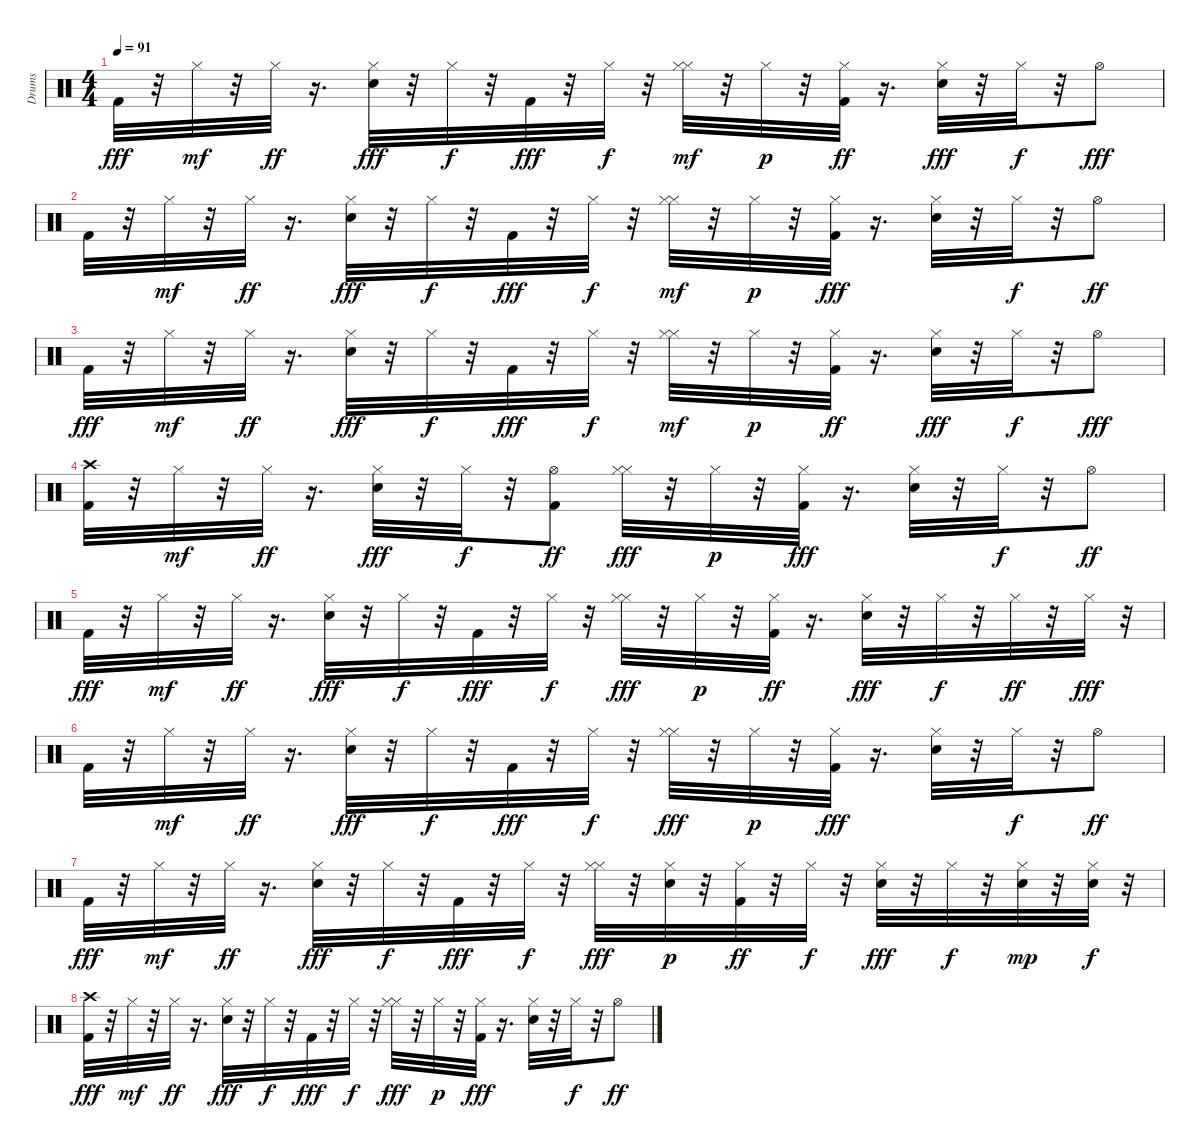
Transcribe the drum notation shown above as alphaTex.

\track ("Drums" "Drums") {instrument percussion}
\staff {score}
\articulation defaults
\ts (4 4)
\tempo 91
\clef neutral
\ks c "Kick (hit) 2".32{dy fff}
r.32 "Hi-Hat (closed)".32{dy mf} r.32 "Hi-Hat (closed)".32{dy ff} r.16{d} ("Snare (hit) 2" "Hi-Hat (closed)").32{dy fff} r.32 "Hi-Hat (closed)".32{dy f} r.32 "Kick (hit) 2".32{dy fff} r.32 "Hi-Hat (closed)".32{dy f} r.32 ("Hi-Hat (closed)" "Hi-Hat (closed)").32{dy mf} r.32 "Hi-Hat (closed)".32{dy p} r.32 ("Kick (hit) 2" "Hi-Hat (closed)").32{dy ff} r.16{d} ("Hi-Hat (closed)" "Snare (hit) 2").32{dy fff} r.32 "Hi-Hat (closed)".32{dy f} r.32 "Hi-Hat (open)".8{dy fff} |
"Kick (hit) 2".32 r.32 "Hi-Hat (closed)".32{dy mf} r.32 "Hi-Hat (closed)".32{dy ff} r.16{d} ("Snare (hit) 2" "Hi-Hat (closed)").32{dy fff} r.32 "Hi-Hat (closed)".32{dy f} r.32 "Kick (hit) 2".32{dy fff} r.32 "Hi-Hat (closed)".32{dy f} r.32 ("Hi-Hat (closed)" "Hi-Hat (closed)").32{dy mf} r.32 "Hi-Hat (closed)".32{dy p} r.32 ("Hi-Hat (closed)" "Kick (hit) 2").32{dy fff} r.16{d} ("Snare (hit) 2" "Hi-Hat (closed)").32 r.32 "Hi-Hat (closed)".32{dy f} r.32 "Hi-Hat (open)".8{dy ff} |
"Kick (hit) 2".32{dy fff} r.32 "Hi-Hat (closed)".32{dy mf} r.32 "Hi-Hat (closed)".32{dy ff} r.16{d} ("Snare (hit) 2" "Hi-Hat (closed)").32{dy fff} r.32 "Hi-Hat (closed)".32{dy f} r.32 "Kick (hit) 2".32{dy fff} r.32 "Hi-Hat (closed)".32{dy f} r.32 ("Hi-Hat (closed)" "Hi-Hat (closed)").32{dy mf} r.32 "Hi-Hat (closed)".32{dy p} r.32 ("Kick (hit) 2" "Hi-Hat (closed)").32{dy ff} r.16{d} ("Hi-Hat (closed)" "Snare (hit) 2").32{dy fff} r.32 "Hi-Hat (closed)".32{dy f} r.32 "Hi-Hat (open)".8{dy fff} |
("Crash high (hit)" "Kick (hit) 2").32 r.32 "Hi-Hat (closed)".32{dy mf} r.32 "Hi-Hat (closed)".32{dy ff} r.16{d} ("Snare (hit) 2" "Hi-Hat (closed)").32{dy fff} r.32 "Hi-Hat (closed)".32{dy f} r.32 ("Kick (hit) 2" "Hi-Hat (open)").8{dy ff} ("Hi-Hat (closed)" "Hi-Hat (closed)").32{dy fff} r.32 "Hi-Hat (closed)".32{dy p} r.32 ("Hi-Hat (closed)" "Kick (hit) 2").32{dy fff} r.16{d} ("Hi-Hat (closed)" "Snare (hit) 2").32 r.32 "Hi-Hat (closed)".32{dy f} r.32 "Hi-Hat (open)".8{dy ff} |
"Kick (hit) 2".32{dy fff} r.32 "Hi-Hat (closed)".32{dy mf} r.32 "Hi-Hat (closed)".32{dy ff} r.16{d} ("Hi-Hat (closed)" "Snare (hit) 2").32{dy fff} r.32 "Hi-Hat (closed)".32{dy f} r.32 "Kick (hit) 2".32{dy fff} r.32 "Hi-Hat (closed)".32{dy f} r.32 ("Hi-Hat (closed)" "Hi-Hat (closed)").32{dy fff} r.32 "Hi-Hat (closed)".32{dy p} r.32 ("Kick (hit) 2" "Hi-Hat (closed)").32{dy ff} r.16{d} ("Hi-Hat (closed)" "Snare (hit) 2").32{dy fff} r.32 "Hi-Hat (closed)".32{dy f} r.32 "Hi-Hat (closed)".32{dy ff} r.32 "Hi-Hat (closed)".32{dy fff} r.32 |
"Kick (hit) 2".32 r.32 "Hi-Hat (closed)".32{dy mf} r.32 "Hi-Hat (closed)".32{dy ff} r.16{d} ("Hi-Hat (closed)" "Snare (hit) 2").32{dy fff} r.32 "Hi-Hat (closed)".32{dy f} r.32 "Kick (hit) 2".32{dy fff} r.32 "Hi-Hat (closed)".32{dy f} r.32 ("Hi-Hat (closed)" "Hi-Hat (closed)").32{dy fff} r.32 "Hi-Hat (closed)".32{dy p} r.32 ("Hi-Hat (closed)" "Kick (hit) 2").32{dy fff} r.16{d} ("Snare (hit) 2" "Hi-Hat (closed)").32 r.32 "Hi-Hat (closed)".32{dy f} r.32 "Hi-Hat (open)".8{dy ff} |
"Kick (hit) 2".32{dy fff} r.32 "Hi-Hat (closed)".32{dy mf} r.32 "Hi-Hat (closed)".32{dy ff} r.16{d} ("Snare (hit) 2" "Hi-Hat (closed)").32{dy fff} r.32 "Hi-Hat (closed)".32{dy f} r.32 "Kick (hit) 2".32{dy fff} r.32 "Hi-Hat (closed)".32{dy f} r.32 ("Hi-Hat (closed)" "Hi-Hat (closed)").32{dy fff} r.32 ("Snare (hit) 2" "Hi-Hat (closed)").32{dy p} r.32 ("Kick (hit) 2" "Hi-Hat (closed)").32{dy ff} r.32 "Hi-Hat (closed)".32{dy f} r.32 ("Hi-Hat (closed)" "Snare (hit) 2").32{dy fff} r.32 "Hi-Hat (closed)".32{dy f} r.32 ("Snare (hit) 2" "Hi-Hat (closed)").32{dy mp} r.32 ("Snare (hit) 2" "Hi-Hat (closed)").32{dy f} r.32 |
("Crash high (hit)" "Kick (hit) 2").32{dy fff} r.32 "Hi-Hat (closed)".32{dy mf} r.32 "Hi-Hat (closed)".32{dy ff} r.16{d} ("Snare (hit) 2" "Hi-Hat (closed)").32{dy fff} r.32 "Hi-Hat (closed)".32{dy f} r.32 "Kick (hit) 2".32{dy fff} r.32 "Hi-Hat (closed)".32{dy f} r.32 ("Hi-Hat (closed)" "Hi-Hat (closed)").32{dy fff} r.32 "Hi-Hat (closed)".32{dy p} r.32 ("Hi-Hat (closed)" "Kick (hit) 2").32{dy fff} r.16{d} ("Hi-Hat (closed)" "Snare (hit) 2").32 r.32 "Hi-Hat (closed)".32{dy f} r.32 "Hi-Hat (open)".8{dy ff}
